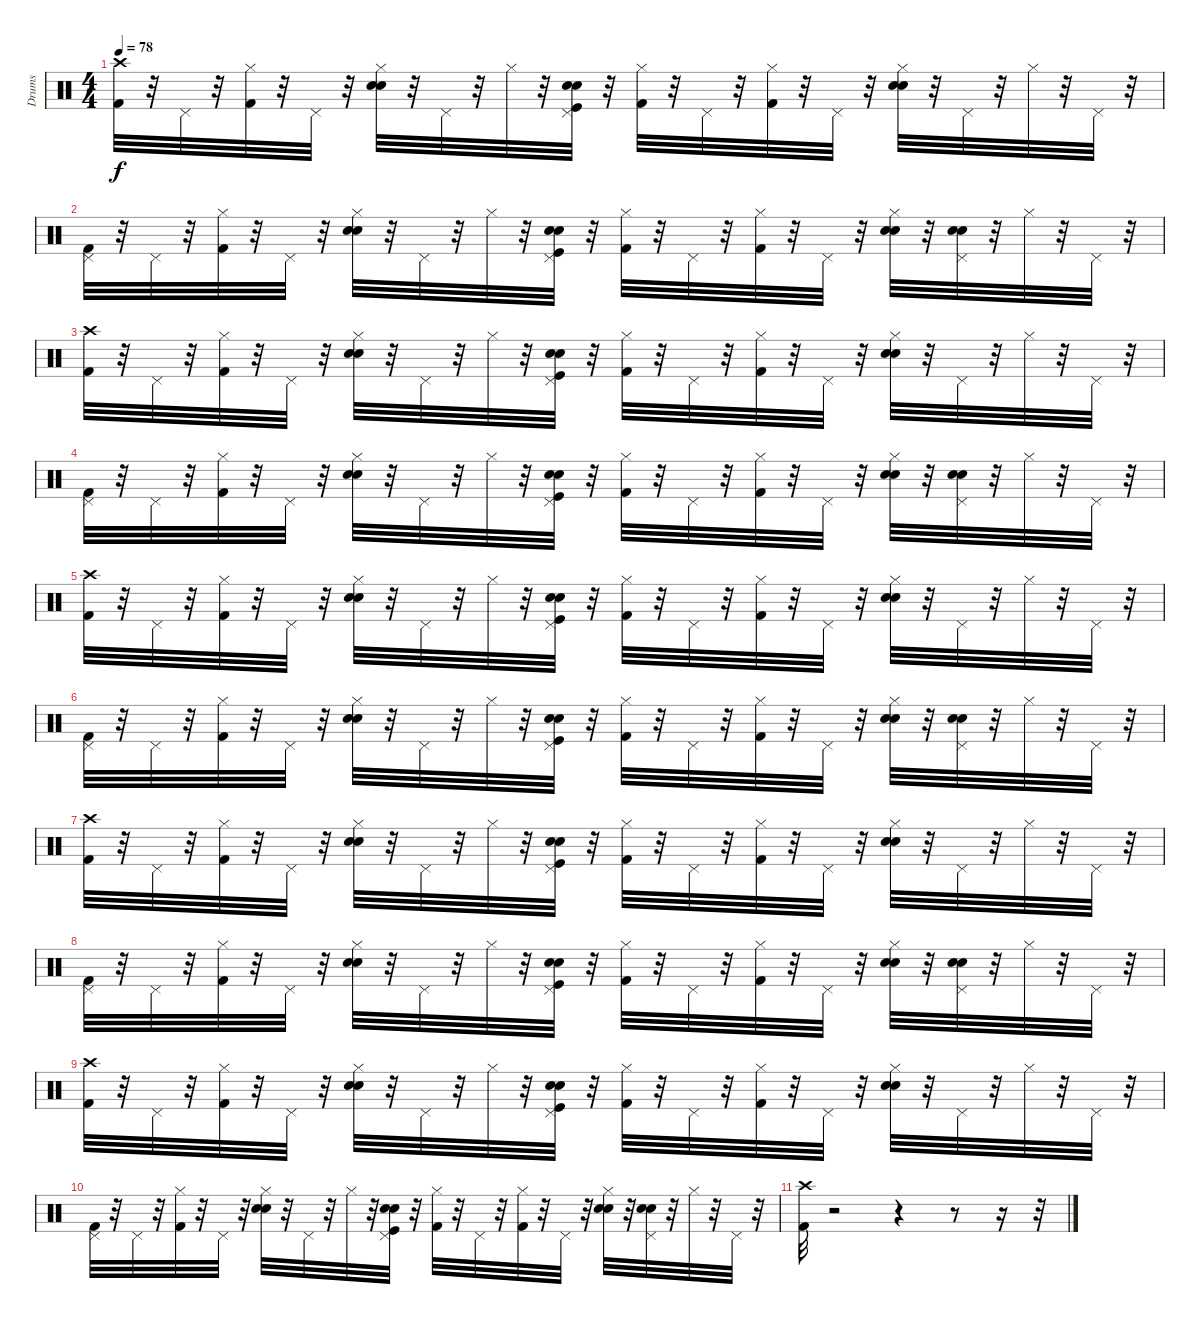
\track ("Drums" "Drums") {instrument percussion}
\staff {score}
\articulation defaults
\ts (4 4)
\tempo 78
\clef neutral
\ks c
("Crash high (hit)" "Kick (hit) 2").32{dy f} r.32 "Pedal Hi-Hat (hit)".32 r.32 ("Hi-Hat (closed)" "Kick (hit) 2").32 r.32 "Pedal Hi-Hat (hit)".32 r.32 ("Hi-Hat (closed)" "Hand Clap (hit)" "Electric Snare (hit)").32 r.32 "Pedal Hi-Hat (hit)".32 r.32 "Hi-Hat (closed)".32 r.32 ("Hand Clap (hit)" "Electric Snare (hit)" "Pedal Hi-Hat (hit)" "Kick (hit)").32 r.32 ("Hi-Hat (closed)" "Kick (hit) 2").32 r.32 "Pedal Hi-Hat (hit)".32 r.32 ("Hi-Hat (closed)" "Kick (hit) 2").32 r.32 "Pedal Hi-Hat (hit)".32 r.32 ("Hi-Hat (closed)" "Hand Clap (hit)" "Electric Snare (hit)").32 r.32 "Pedal Hi-Hat (hit)".32 r.32 "Hi-Hat (closed)".32 r.32 "Pedal Hi-Hat (hit)".32 r.32 |
("Pedal Hi-Hat (hit)" "Kick (hit) 2").32 r.32 "Pedal Hi-Hat (hit)".32 r.32 ("Hi-Hat (closed)" "Kick (hit) 2").32 r.32 "Pedal Hi-Hat (hit)".32 r.32 ("Hi-Hat (closed)" "Hand Clap (hit)" "Electric Snare (hit)").32 r.32 "Pedal Hi-Hat (hit)".32 r.32 "Hi-Hat (closed)".32 r.32 ("Hand Clap (hit)" "Electric Snare (hit)" "Pedal Hi-Hat (hit)" "Kick (hit)").32 r.32 ("Hi-Hat (closed)" "Kick (hit) 2").32 r.32 "Pedal Hi-Hat (hit)".32 r.32 ("Hi-Hat (closed)" "Kick (hit) 2").32 r.32 "Pedal Hi-Hat (hit)".32 r.32 ("Hi-Hat (closed)" "Hand Clap (hit)" "Electric Snare (hit)").32 r.32 ("Hand Clap (hit)" "Electric Snare (hit)" "Pedal Hi-Hat (hit)").32 r.32 "Hi-Hat (closed)".32 r.32 "Pedal Hi-Hat (hit)".32 r.32 |
("Crash high (hit)" "Kick (hit) 2").32 r.32 "Pedal Hi-Hat (hit)".32 r.32 ("Hi-Hat (closed)" "Kick (hit) 2").32 r.32 "Pedal Hi-Hat (hit)".32 r.32 ("Hi-Hat (closed)" "Hand Clap (hit)" "Electric Snare (hit)").32 r.32 "Pedal Hi-Hat (hit)".32 r.32 "Hi-Hat (closed)".32 r.32 ("Hand Clap (hit)" "Electric Snare (hit)" "Pedal Hi-Hat (hit)" "Kick (hit)").32 r.32 ("Hi-Hat (closed)" "Kick (hit) 2").32 r.32 "Pedal Hi-Hat (hit)".32 r.32 ("Hi-Hat (closed)" "Kick (hit) 2").32 r.32 "Pedal Hi-Hat (hit)".32 r.32 ("Hi-Hat (closed)" "Hand Clap (hit)" "Electric Snare (hit)").32 r.32 "Pedal Hi-Hat (hit)".32 r.32 "Hi-Hat (closed)".32 r.32 "Pedal Hi-Hat (hit)".32 r.32 |
("Pedal Hi-Hat (hit)" "Kick (hit) 2").32 r.32 "Pedal Hi-Hat (hit)".32 r.32 ("Hi-Hat (closed)" "Kick (hit) 2").32 r.32 "Pedal Hi-Hat (hit)".32 r.32 ("Hi-Hat (closed)" "Hand Clap (hit)" "Electric Snare (hit)").32 r.32 "Pedal Hi-Hat (hit)".32 r.32 "Hi-Hat (closed)".32 r.32 ("Hand Clap (hit)" "Electric Snare (hit)" "Pedal Hi-Hat (hit)" "Kick (hit)").32 r.32 ("Hi-Hat (closed)" "Kick (hit) 2").32 r.32 "Pedal Hi-Hat (hit)".32 r.32 ("Hi-Hat (closed)" "Kick (hit) 2").32 r.32 "Pedal Hi-Hat (hit)".32 r.32 ("Hi-Hat (closed)" "Hand Clap (hit)" "Electric Snare (hit)").32 r.32 ("Hand Clap (hit)" "Electric Snare (hit)" "Pedal Hi-Hat (hit)").32 r.32 "Hi-Hat (closed)".32 r.32 "Pedal Hi-Hat (hit)".32 r.32 |
("Crash high (hit)" "Kick (hit) 2").32 r.32 "Pedal Hi-Hat (hit)".32 r.32 ("Hi-Hat (closed)" "Kick (hit) 2").32 r.32 "Pedal Hi-Hat (hit)".32 r.32 ("Hi-Hat (closed)" "Hand Clap (hit)" "Electric Snare (hit)").32 r.32 "Pedal Hi-Hat (hit)".32 r.32 "Hi-Hat (closed)".32 r.32 ("Hand Clap (hit)" "Electric Snare (hit)" "Pedal Hi-Hat (hit)" "Kick (hit)").32 r.32 ("Hi-Hat (closed)" "Kick (hit) 2").32 r.32 "Pedal Hi-Hat (hit)".32 r.32 ("Hi-Hat (closed)" "Kick (hit) 2").32 r.32 "Pedal Hi-Hat (hit)".32 r.32 ("Hi-Hat (closed)" "Hand Clap (hit)" "Electric Snare (hit)").32 r.32 "Pedal Hi-Hat (hit)".32 r.32 "Hi-Hat (closed)".32 r.32 "Pedal Hi-Hat (hit)".32 r.32 |
("Pedal Hi-Hat (hit)" "Kick (hit) 2").32 r.32 "Pedal Hi-Hat (hit)".32 r.32 ("Hi-Hat (closed)" "Kick (hit) 2").32 r.32 "Pedal Hi-Hat (hit)".32 r.32 ("Hi-Hat (closed)" "Hand Clap (hit)" "Electric Snare (hit)").32 r.32 "Pedal Hi-Hat (hit)".32 r.32 "Hi-Hat (closed)".32 r.32 ("Hand Clap (hit)" "Electric Snare (hit)" "Pedal Hi-Hat (hit)" "Kick (hit)").32 r.32 ("Hi-Hat (closed)" "Kick (hit) 2").32 r.32 "Pedal Hi-Hat (hit)".32 r.32 ("Hi-Hat (closed)" "Kick (hit) 2").32 r.32 "Pedal Hi-Hat (hit)".32 r.32 ("Hi-Hat (closed)" "Hand Clap (hit)" "Electric Snare (hit)").32 r.32 ("Hand Clap (hit)" "Electric Snare (hit)" "Pedal Hi-Hat (hit)").32 r.32 "Hi-Hat (closed)".32 r.32 "Pedal Hi-Hat (hit)".32 r.32 |
("Crash high (hit)" "Kick (hit) 2").32 r.32 "Pedal Hi-Hat (hit)".32 r.32 ("Hi-Hat (closed)" "Kick (hit) 2").32 r.32 "Pedal Hi-Hat (hit)".32 r.32 ("Hi-Hat (closed)" "Hand Clap (hit)" "Electric Snare (hit)").32 r.32 "Pedal Hi-Hat (hit)".32 r.32 "Hi-Hat (closed)".32 r.32 ("Hand Clap (hit)" "Electric Snare (hit)" "Pedal Hi-Hat (hit)" "Kick (hit)").32 r.32 ("Hi-Hat (closed)" "Kick (hit) 2").32 r.32 "Pedal Hi-Hat (hit)".32 r.32 ("Hi-Hat (closed)" "Kick (hit) 2").32 r.32 "Pedal Hi-Hat (hit)".32 r.32 ("Hi-Hat (closed)" "Hand Clap (hit)" "Electric Snare (hit)").32 r.32 "Pedal Hi-Hat (hit)".32 r.32 "Hi-Hat (closed)".32 r.32 "Pedal Hi-Hat (hit)".32 r.32 |
("Pedal Hi-Hat (hit)" "Kick (hit) 2").32 r.32 "Pedal Hi-Hat (hit)".32 r.32 ("Hi-Hat (closed)" "Kick (hit) 2").32 r.32 "Pedal Hi-Hat (hit)".32 r.32 ("Hi-Hat (closed)" "Hand Clap (hit)" "Electric Snare (hit)").32 r.32 "Pedal Hi-Hat (hit)".32 r.32 "Hi-Hat (closed)".32 r.32 ("Hand Clap (hit)" "Electric Snare (hit)" "Pedal Hi-Hat (hit)" "Kick (hit)").32 r.32 ("Hi-Hat (closed)" "Kick (hit) 2").32 r.32 "Pedal Hi-Hat (hit)".32 r.32 ("Hi-Hat (closed)" "Kick (hit) 2").32 r.32 "Pedal Hi-Hat (hit)".32 r.32 ("Hi-Hat (closed)" "Hand Clap (hit)" "Electric Snare (hit)").32 r.32 ("Hand Clap (hit)" "Electric Snare (hit)" "Pedal Hi-Hat (hit)").32 r.32 "Hi-Hat (closed)".32 r.32 "Pedal Hi-Hat (hit)".32 r.32 |
("Crash high (hit)" "Kick (hit) 2").32 r.32 "Pedal Hi-Hat (hit)".32 r.32 ("Hi-Hat (closed)" "Kick (hit) 2").32 r.32 "Pedal Hi-Hat (hit)".32 r.32 ("Hi-Hat (closed)" "Hand Clap (hit)" "Electric Snare (hit)").32 r.32 "Pedal Hi-Hat (hit)".32 r.32 "Hi-Hat (closed)".32 r.32 ("Hand Clap (hit)" "Electric Snare (hit)" "Pedal Hi-Hat (hit)" "Kick (hit)").32 r.32 ("Hi-Hat (closed)" "Kick (hit) 2").32 r.32 "Pedal Hi-Hat (hit)".32 r.32 ("Hi-Hat (closed)" "Kick (hit) 2").32 r.32 "Pedal Hi-Hat (hit)".32 r.32 ("Hi-Hat (closed)" "Hand Clap (hit)" "Electric Snare (hit)").32 r.32 "Pedal Hi-Hat (hit)".32 r.32 "Hi-Hat (closed)".32 r.32 "Pedal Hi-Hat (hit)".32 r.32 |
("Pedal Hi-Hat (hit)" "Kick (hit) 2").32 r.32 "Pedal Hi-Hat (hit)".32 r.32 ("Hi-Hat (closed)" "Kick (hit) 2").32 r.32 "Pedal Hi-Hat (hit)".32 r.32 ("Hi-Hat (closed)" "Hand Clap (hit)" "Electric Snare (hit)").32 r.32 "Pedal Hi-Hat (hit)".32 r.32 "Hi-Hat (closed)".32 r.32 ("Hand Clap (hit)" "Electric Snare (hit)" "Pedal Hi-Hat (hit)" "Kick (hit)").32 r.32 ("Hi-Hat (closed)" "Kick (hit) 2").32 r.32 "Pedal Hi-Hat (hit)".32 r.32 ("Hi-Hat (closed)" "Kick (hit) 2").32 r.32 "Pedal Hi-Hat (hit)".32 r.32 ("Hi-Hat (closed)" "Hand Clap (hit)" "Electric Snare (hit)").32 r.32 ("Hand Clap (hit)" "Electric Snare (hit)" "Pedal Hi-Hat (hit)").32 r.32 "Hi-Hat (closed)".32 r.32 "Pedal Hi-Hat (hit)".32 r.32 |
("Crash high (hit)" "Kick (hit) 2").32 r.2 r.4 r.8 r.16 r.32
